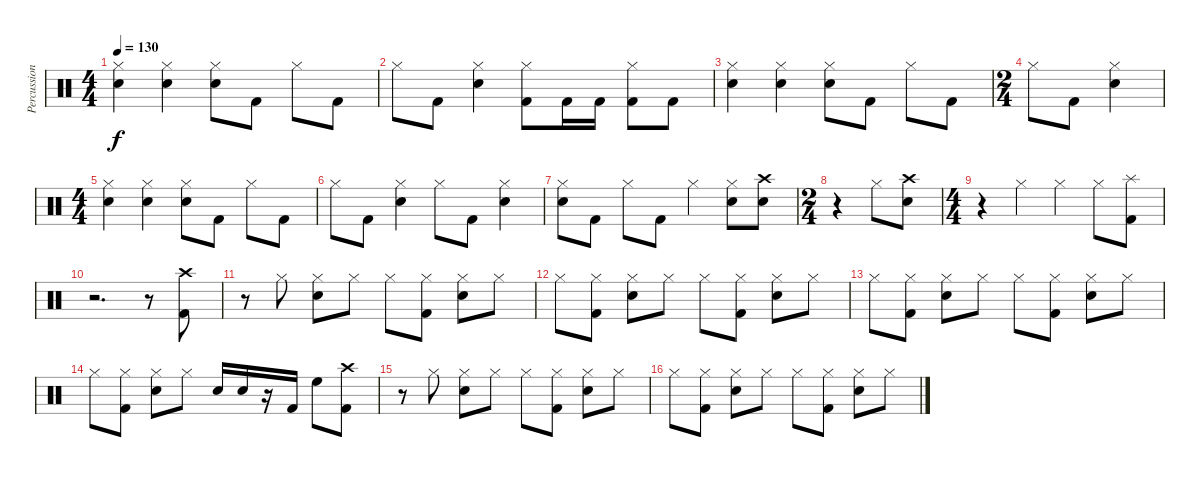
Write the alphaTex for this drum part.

\track ("Percussion" "Percussion") {instrument percussion}
\staff {score}
\articulation defaults
\ts (4 4)
\tempo 130
\clef neutral
\ks c
("Snare (hit) 2" "Hi-Hat (closed)").4{dy f} ("Snare (hit) 2" "Hi-Hat (closed)").4 ("Snare (hit) 2" "Hi-Hat (closed)").8 "Kick (hit) 2".8 "Hi-Hat (closed)".8 "Kick (hit) 2".8 |
"Hi-Hat (closed)".8 "Kick (hit) 2".8 ("Snare (hit) 2" "Hi-Hat (closed)").4 ("Kick (hit) 2" "Hi-Hat (closed)").8 "Kick (hit) 2".16 "Kick (hit) 2".16 ("Kick (hit) 2" "Hi-Hat (closed)").8 "Kick (hit) 2".8 |
("Snare (hit) 2" "Hi-Hat (closed)").4 ("Snare (hit) 2" "Hi-Hat (closed)").4 ("Snare (hit) 2" "Hi-Hat (closed)").8 "Kick (hit) 2".8 "Hi-Hat (closed)".8 "Kick (hit) 2".8 |
\ts (2 4)
"Hi-Hat (closed)".8 "Kick (hit) 2".8 ("Snare (hit) 2" "Hi-Hat (closed)").4 |
\ts (4 4)
("Snare (hit) 2" "Hi-Hat (closed)").4 ("Snare (hit) 2" "Hi-Hat (closed)").4 ("Snare (hit) 2" "Hi-Hat (closed)").8 "Kick (hit) 2".8 "Hi-Hat (closed)".8 "Kick (hit) 2".8 |
"Hi-Hat (closed)".8 "Kick (hit) 2".8 ("Snare (hit) 2" "Hi-Hat (closed)").4 "Hi-Hat (closed)".8 "Kick (hit) 2".8 ("Snare (hit) 2" "Hi-Hat (closed)").4 |
("Snare (hit) 2" "Hi-Hat (closed)").8 "Kick (hit) 2".8 "Hi-Hat (closed)".8 "Kick (hit) 2".8 "Hi-Hat (closed)".4 ("Snare (hit) 2" "Hi-Hat (closed)").8 ("Snare (hit) 2" "Crash high (hit)").8 |
\ts (2 4)
r.4 "Hi-Hat (closed)".8 ("Snare (hit) 2" "Crash high (hit)").8 |
\ts (4 4)
r.4 "Hi-Hat (closed)".4 "Hi-Hat (closed)".4 "Hi-Hat (closed)".8 ("Kick (hit) 2" "Splash (hit)").8 |
r.2{d} r.8 ("Kick (hit) 2" "Crash high (hit)").8 |
r.8 "Hi-Hat (closed)".8 ("Snare (hit) 2" "Hi-Hat (closed)").8 "Hi-Hat (closed)".8 "Hi-Hat (closed)".8 ("Kick (hit) 2" "Hi-Hat (closed)").8 ("Snare (hit) 2" "Hi-Hat (closed)").8 "Hi-Hat (closed)".8 |
"Hi-Hat (closed)".8 ("Kick (hit) 2" "Hi-Hat (closed)").8 ("Snare (hit) 2" "Hi-Hat (closed)").8 "Hi-Hat (closed)".8 "Hi-Hat (closed)".8 ("Kick (hit) 2" "Hi-Hat (closed)").8 ("Snare (hit) 2" "Hi-Hat (closed)").8 "Hi-Hat (closed)".8 |
"Hi-Hat (closed)".8 ("Kick (hit) 2" "Hi-Hat (closed)").8 ("Snare (hit) 2" "Hi-Hat (closed)").8 "Hi-Hat (closed)".8 "Hi-Hat (closed)".8 ("Kick (hit) 2" "Hi-Hat (closed)").8 ("Snare (hit) 2" "Hi-Hat (closed)").8 "Hi-Hat (closed)".8 |
"Hi-Hat (closed)".8 ("Kick (hit) 2" "Hi-Hat (closed)").8 ("Snare (hit) 2" "Hi-Hat (closed)").8 "Hi-Hat (closed)".8 "Snare (hit) 2".16 "Snare (hit) 2".16 r.16 "Kick (hit) 2".16 "High Floor Tom (hit)".8 ("Kick (hit) 2" "Crash high (hit)").8 |
r.8 "Hi-Hat (closed)".8 ("Snare (hit) 2" "Hi-Hat (closed)").8 "Hi-Hat (closed)".8 "Hi-Hat (closed)".8 ("Kick (hit) 2" "Hi-Hat (closed)").8 ("Snare (hit) 2" "Hi-Hat (closed)").8 "Hi-Hat (closed)".8 |
"Hi-Hat (closed)".8 ("Kick (hit) 2" "Hi-Hat (closed)").8 ("Snare (hit) 2" "Hi-Hat (closed)").8 "Hi-Hat (closed)".8 "Hi-Hat (closed)".8 ("Kick (hit) 2" "Hi-Hat (closed)").8 ("Snare (hit) 2" "Hi-Hat (closed)").8 "Hi-Hat (closed)".8
